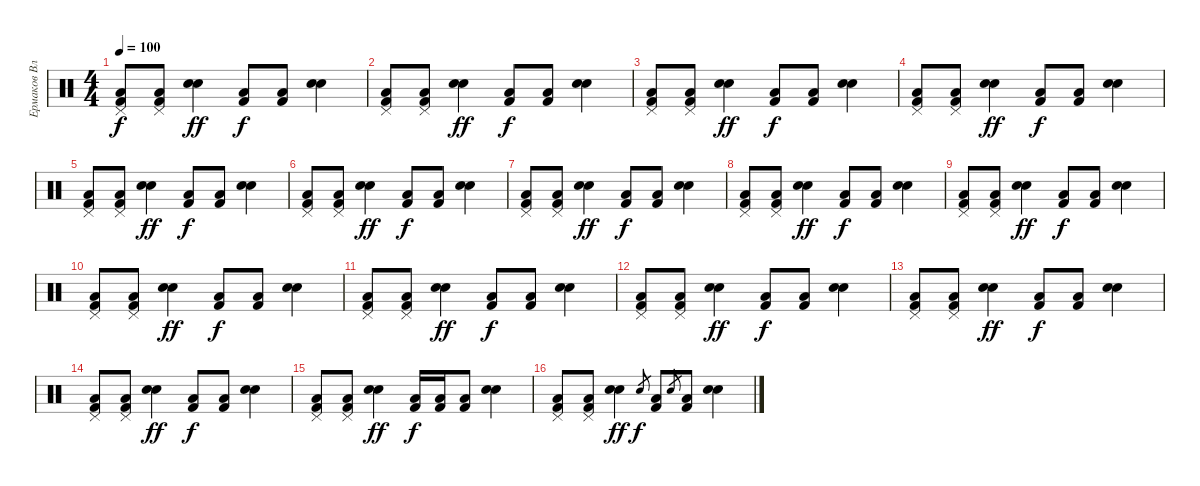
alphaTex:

\track ("Ермаков Владимир" "Ермаков Вл") {instrument percussion}
\staff {score}
\articulation defaults
\ts (4 4)
\tempo 100
\clef neutral
\ks c
("Kick (hit) 2" "Pedal Hi-Hat (hit)" "Low Floor Tom (hit)").8{dy f} ("Kick (hit) 2" "Pedal Hi-Hat (hit)" "Low Floor Tom (hit)").8 ("Hand Clap (hit)" "Electric Snare (hit)").4{dy ff} ("Kick (hit) 2" "Low Floor Tom (hit)").8{dy f} ("Kick (hit) 2" "Low Floor Tom (hit)").8 ("Hand Clap (hit)" "Electric Snare (hit)").4 |
("Kick (hit) 2" "Pedal Hi-Hat (hit)" "Low Floor Tom (hit)").8 ("Kick (hit) 2" "Pedal Hi-Hat (hit)" "Low Floor Tom (hit)").8 ("Hand Clap (hit)" "Electric Snare (hit)").4{dy ff} ("Kick (hit) 2" "Low Floor Tom (hit)").8{dy f} ("Kick (hit) 2" "Low Floor Tom (hit)").8 ("Hand Clap (hit)" "Electric Snare (hit)").4 |
("Kick (hit) 2" "Pedal Hi-Hat (hit)" "Low Floor Tom (hit)").8 ("Kick (hit) 2" "Pedal Hi-Hat (hit)" "Low Floor Tom (hit)").8 ("Hand Clap (hit)" "Electric Snare (hit)").4{dy ff} ("Kick (hit) 2" "Low Floor Tom (hit)").8{dy f} ("Kick (hit) 2" "Low Floor Tom (hit)").8 ("Hand Clap (hit)" "Electric Snare (hit)").4 |
("Kick (hit) 2" "Pedal Hi-Hat (hit)" "Low Floor Tom (hit)").8 ("Kick (hit) 2" "Pedal Hi-Hat (hit)" "Low Floor Tom (hit)").8 ("Hand Clap (hit)" "Electric Snare (hit)").4{dy ff} ("Kick (hit) 2" "Low Floor Tom (hit)").8{dy f} ("Kick (hit) 2" "Low Floor Tom (hit)").8 ("Hand Clap (hit)" "Electric Snare (hit)").4 |
("Kick (hit) 2" "Pedal Hi-Hat (hit)" "Low Floor Tom (hit)").8 ("Kick (hit) 2" "Pedal Hi-Hat (hit)" "Low Floor Tom (hit)").8 ("Hand Clap (hit)" "Electric Snare (hit)").4{dy ff} ("Kick (hit) 2" "Low Floor Tom (hit)").8{dy f} ("Kick (hit) 2" "Low Floor Tom (hit)").8 ("Hand Clap (hit)" "Electric Snare (hit)").4 |
("Kick (hit) 2" "Pedal Hi-Hat (hit)" "Low Floor Tom (hit)").8 ("Kick (hit) 2" "Pedal Hi-Hat (hit)" "Low Floor Tom (hit)").8 ("Hand Clap (hit)" "Electric Snare (hit)").4{dy ff} ("Kick (hit) 2" "Low Floor Tom (hit)").8{dy f} ("Kick (hit) 2" "Low Floor Tom (hit)").8 ("Hand Clap (hit)" "Electric Snare (hit)").4 |
("Kick (hit) 2" "Pedal Hi-Hat (hit)" "Low Floor Tom (hit)").8 ("Kick (hit) 2" "Pedal Hi-Hat (hit)" "Low Floor Tom (hit)").8 ("Hand Clap (hit)" "Electric Snare (hit)").4{dy ff} ("Kick (hit) 2" "Low Floor Tom (hit)").8{dy f} ("Kick (hit) 2" "Low Floor Tom (hit)").8 ("Hand Clap (hit)" "Electric Snare (hit)").4 |
("Kick (hit) 2" "Pedal Hi-Hat (hit)" "Low Floor Tom (hit)").8 ("Kick (hit) 2" "Pedal Hi-Hat (hit)" "Low Floor Tom (hit)").8 ("Hand Clap (hit)" "Electric Snare (hit)").4{dy ff} ("Kick (hit) 2" "Low Floor Tom (hit)").8{dy f} ("Kick (hit) 2" "Low Floor Tom (hit)").8 ("Hand Clap (hit)" "Electric Snare (hit)").4 |
("Kick (hit) 2" "Pedal Hi-Hat (hit)" "Low Floor Tom (hit)").8 ("Kick (hit) 2" "Pedal Hi-Hat (hit)" "Low Floor Tom (hit)").8 ("Hand Clap (hit)" "Electric Snare (hit)").4{dy ff} ("Kick (hit) 2" "Low Floor Tom (hit)").8{dy f} ("Kick (hit) 2" "Low Floor Tom (hit)").8 ("Hand Clap (hit)" "Electric Snare (hit)").4 |
("Kick (hit) 2" "Pedal Hi-Hat (hit)" "Low Floor Tom (hit)").8 ("Kick (hit) 2" "Pedal Hi-Hat (hit)" "Low Floor Tom (hit)").8 ("Hand Clap (hit)" "Electric Snare (hit)").4{dy ff} ("Kick (hit) 2" "Low Floor Tom (hit)").8{dy f} ("Kick (hit) 2" "Low Floor Tom (hit)").8 ("Hand Clap (hit)" "Electric Snare (hit)").4 |
("Kick (hit) 2" "Pedal Hi-Hat (hit)" "Low Floor Tom (hit)").8 ("Kick (hit) 2" "Pedal Hi-Hat (hit)" "Low Floor Tom (hit)").8 ("Hand Clap (hit)" "Electric Snare (hit)").4{dy ff} ("Kick (hit) 2" "Low Floor Tom (hit)").8{dy f} ("Kick (hit) 2" "Low Floor Tom (hit)").8 ("Hand Clap (hit)" "Electric Snare (hit)").4 |
("Kick (hit) 2" "Pedal Hi-Hat (hit)" "Low Floor Tom (hit)").8 ("Kick (hit) 2" "Pedal Hi-Hat (hit)" "Low Floor Tom (hit)").8 ("Hand Clap (hit)" "Electric Snare (hit)").4{dy ff} ("Kick (hit) 2" "Low Floor Tom (hit)").8{dy f} ("Kick (hit) 2" "Low Floor Tom (hit)").8 ("Hand Clap (hit)" "Electric Snare (hit)").4 |
("Kick (hit) 2" "Pedal Hi-Hat (hit)" "Low Floor Tom (hit)").8 ("Kick (hit) 2" "Pedal Hi-Hat (hit)" "Low Floor Tom (hit)").8 ("Hand Clap (hit)" "Electric Snare (hit)").4{dy ff} ("Kick (hit) 2" "Low Floor Tom (hit)").8{dy f} ("Kick (hit) 2" "Low Floor Tom (hit)").8 ("Hand Clap (hit)" "Electric Snare (hit)").4 |
("Kick (hit) 2" "Pedal Hi-Hat (hit)" "Low Floor Tom (hit)").8 ("Kick (hit) 2" "Pedal Hi-Hat (hit)" "Low Floor Tom (hit)").8 ("Hand Clap (hit)" "Electric Snare (hit)").4{dy ff} ("Kick (hit) 2" "Low Floor Tom (hit)").8{dy f} ("Kick (hit) 2" "Low Floor Tom (hit)").8 ("Hand Clap (hit)" "Electric Snare (hit)").4 |
("Kick (hit) 2" "Pedal Hi-Hat (hit)" "Low Floor Tom (hit)").8 ("Kick (hit) 2" "Pedal Hi-Hat (hit)" "Low Floor Tom (hit)").8 ("Hand Clap (hit)" "Electric Snare (hit)").4{dy ff} ("Kick (hit) 2" "Low Floor Tom (hit)").16{dy f} ("Kick (hit) 2" "Low Floor Tom (hit)").16 ("Kick (hit) 2" "Low Floor Tom (hit)").8 ("Hand Clap (hit)" "Electric Snare (hit)").4 |
("Kick (hit) 2" "Pedal Hi-Hat (hit)" "Low Floor Tom (hit)").8 ("Kick (hit) 2" "Pedal Hi-Hat (hit)" "Low Floor Tom (hit)").8 ("Hand Clap (hit)" "Electric Snare (hit)").4{dy ff} "Electric Snare (hit)".8{gr dy f} ("Kick (hit) 2" "Low Floor Tom (hit)").8 "Electric Snare (hit)".8{gr} ("Kick (hit) 2" "Low Floor Tom (hit)").8 ("Hand Clap (hit)" "Electric Snare (hit)").4
